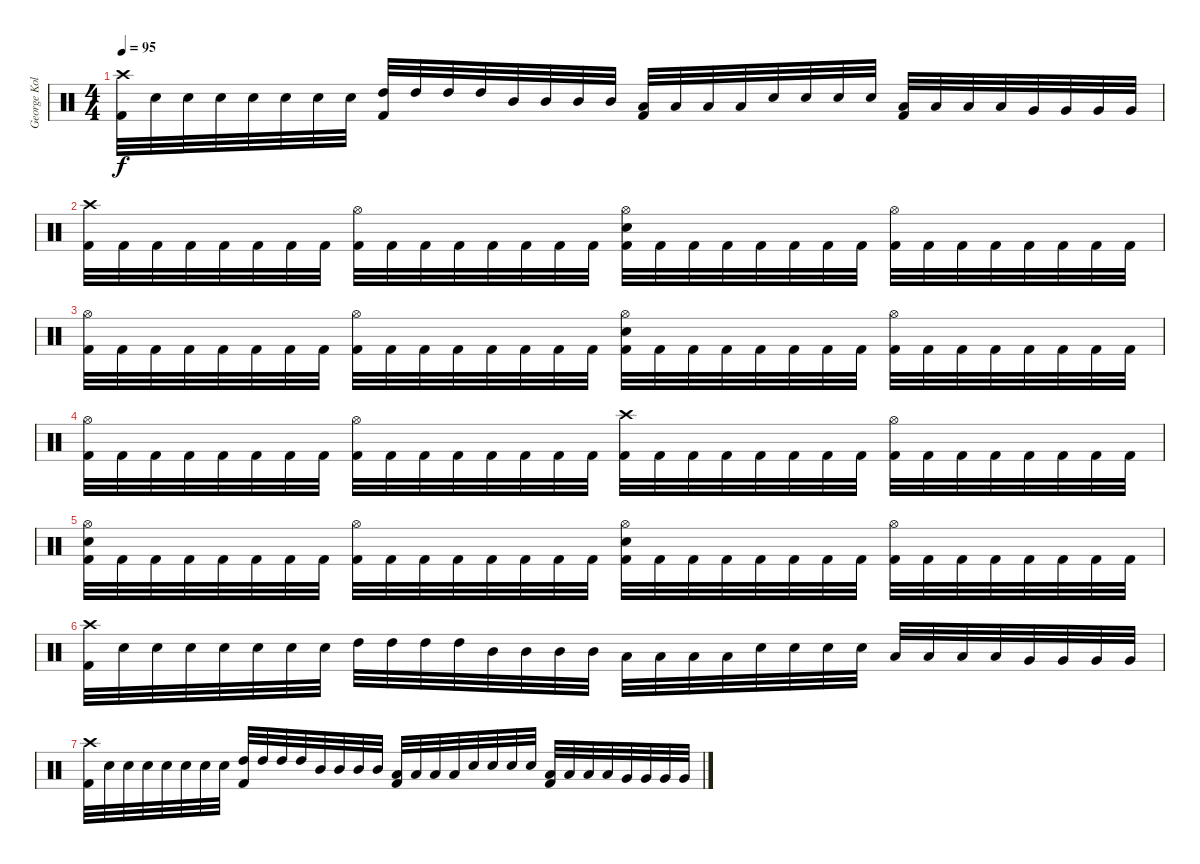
\track ("George Kollias" "George Kol") {instrument percussion}
\staff {score}
\articulation defaults
\ts (4 4)
\tempo 95
\clef neutral
\ks c
("Crash high (hit)" "Kick (hit) 2").32{dy f} "Electric Snare (hit)".32 "Electric Snare (hit)".32 "Electric Snare (hit)".32 "Electric Snare (hit)".32 "Electric Snare (hit)".32 "Electric Snare (hit)".32 "Electric Snare (hit)".32 ("High Tom (hit)" "Kick (hit) 2").32 "High Tom (hit)".32 "High Tom (hit)".32 "High Tom (hit)".32 "Mid Tom (hit)".32 "Mid Tom (hit)".32 "Mid Tom (hit)".32 "Mid Tom (hit)".32 ("Low Tom (hit)" "Kick (hit) 2").32 "Low Tom (hit)".32 "Low Tom (hit)".32 "Low Tom (hit)".32 "Electric Snare (hit)".32 "Electric Snare (hit)".32 "Electric Snare (hit)".32 "Electric Snare (hit)".32 ("Low Tom (hit)" "Kick (hit) 2").32 "Low Tom (hit)".32 "Low Tom (hit)".32 "Low Tom (hit)".32 "Very Low Tom (hit)".32 "Very Low Tom (hit)".32 "Very Low Tom (hit)".32 "Very Low Tom (hit)".32 |
("Crash high (hit)" "Kick (hit) 2").32 "Kick (hit) 2".32 "Kick (hit) 2".32 "Kick (hit) 2".32 "Kick (hit) 2".32 "Kick (hit) 2".32 "Kick (hit) 2".32 "Kick (hit) 2".32 ("Hi-Hat (open)" "Kick (hit) 2").32 "Kick (hit) 2".32 "Kick (hit) 2".32 "Kick (hit) 2".32 "Kick (hit) 2".32 "Kick (hit) 2".32 "Kick (hit) 2".32 "Kick (hit) 2".32 ("Hi-Hat (open)" "Electric Snare (hit)" "Kick (hit) 2").32 "Kick (hit) 2".32 "Kick (hit) 2".32 "Kick (hit) 2".32 "Kick (hit) 2".32 "Kick (hit) 2".32 "Kick (hit) 2".32 "Kick (hit) 2".32 ("Hi-Hat (open)" "Kick (hit) 2").32 "Kick (hit) 2".32 "Kick (hit) 2".32 "Kick (hit) 2".32 "Kick (hit) 2".32 "Kick (hit) 2".32 "Kick (hit) 2".32 "Kick (hit) 2".32 |
("Hi-Hat (open)" "Kick (hit) 2").32 "Kick (hit) 2".32 "Kick (hit) 2".32 "Kick (hit) 2".32 "Kick (hit) 2".32 "Kick (hit) 2".32 "Kick (hit) 2".32 "Kick (hit) 2".32 ("Hi-Hat (open)" "Kick (hit) 2").32 "Kick (hit) 2".32 "Kick (hit) 2".32 "Kick (hit) 2".32 "Kick (hit) 2".32 "Kick (hit) 2".32 "Kick (hit) 2".32 "Kick (hit) 2".32 ("Hi-Hat (open)" "Electric Snare (hit)" "Kick (hit) 2").32 "Kick (hit) 2".32 "Kick (hit) 2".32 "Kick (hit) 2".32 "Kick (hit) 2".32 "Kick (hit) 2".32 "Kick (hit) 2".32 "Kick (hit) 2".32 ("Hi-Hat (open)" "Kick (hit) 2").32 "Kick (hit) 2".32 "Kick (hit) 2".32 "Kick (hit) 2".32 "Kick (hit) 2".32 "Kick (hit) 2".32 "Kick (hit) 2".32 "Kick (hit) 2".32 |
("Hi-Hat (open)" "Kick (hit) 2").32 "Kick (hit) 2".32 "Kick (hit) 2".32 "Kick (hit) 2".32 "Kick (hit) 2".32 "Kick (hit) 2".32 "Kick (hit) 2".32 "Kick (hit) 2".32 ("Hi-Hat (open)" "Kick (hit) 2").32 "Kick (hit) 2".32 "Kick (hit) 2".32 "Kick (hit) 2".32 "Kick (hit) 2".32 "Kick (hit) 2".32 "Kick (hit) 2".32 "Kick (hit) 2".32 ("Crash high (hit)" "Kick (hit) 2").32 "Kick (hit) 2".32 "Kick (hit) 2".32 "Kick (hit) 2".32 "Kick (hit) 2".32 "Kick (hit) 2".32 "Kick (hit) 2".32 "Kick (hit) 2".32 ("Hi-Hat (open)" "Kick (hit) 2").32 "Kick (hit) 2".32 "Kick (hit) 2".32 "Kick (hit) 2".32 "Kick (hit) 2".32 "Kick (hit) 2".32 "Kick (hit) 2".32 "Kick (hit) 2".32 |
("Hi-Hat (open)" "Electric Snare (hit)" "Kick (hit) 2").32 "Kick (hit) 2".32 "Kick (hit) 2".32 "Kick (hit) 2".32 "Kick (hit) 2".32 "Kick (hit) 2".32 "Kick (hit) 2".32 "Kick (hit) 2".32 ("Hi-Hat (open)" "Kick (hit) 2").32 "Kick (hit) 2".32 "Kick (hit) 2".32 "Kick (hit) 2".32 "Kick (hit) 2".32 "Kick (hit) 2".32 "Kick (hit) 2".32 "Kick (hit) 2".32 ("Hi-Hat (open)" "Electric Snare (hit)" "Kick (hit) 2").32 "Kick (hit) 2".32 "Kick (hit) 2".32 "Kick (hit) 2".32 "Kick (hit) 2".32 "Kick (hit) 2".32 "Kick (hit) 2".32 "Kick (hit) 2".32 ("Hi-Hat (open)" "Kick (hit) 2").32 "Kick (hit) 2".32 "Kick (hit) 2".32 "Kick (hit) 2".32 "Kick (hit) 2".32 "Kick (hit) 2".32 "Kick (hit) 2".32 "Kick (hit) 2".32 |
("Crash high (hit)" "Kick (hit) 2").32 "Electric Snare (hit)".32 "Electric Snare (hit)".32 "Electric Snare (hit)".32 "Electric Snare (hit)".32 "Electric Snare (hit)".32 "Electric Snare (hit)".32 "Electric Snare (hit)".32 "High Tom (hit)".32 "High Tom (hit)".32 "High Tom (hit)".32 "High Tom (hit)".32 "Mid Tom (hit)".32 "Mid Tom (hit)".32 "Mid Tom (hit)".32 "Mid Tom (hit)".32 "Low Tom (hit)".32 "Low Tom (hit)".32 "Low Tom (hit)".32 "Low Tom (hit)".32 "Electric Snare (hit)".32 "Electric Snare (hit)".32 "Electric Snare (hit)".32 "Electric Snare (hit)".32 "Low Tom (hit)".32 "Low Tom (hit)".32 "Low Tom (hit)".32 "Low Tom (hit)".32 "Very Low Tom (hit)".32 "Very Low Tom (hit)".32 "Very Low Tom (hit)".32 "Very Low Tom (hit)".32 |
("Crash high (hit)" "Kick (hit) 2").32 "Electric Snare (hit)".32 "Electric Snare (hit)".32 "Electric Snare (hit)".32 "Electric Snare (hit)".32 "Electric Snare (hit)".32 "Electric Snare (hit)".32 "Electric Snare (hit)".32 ("High Tom (hit)" "Kick (hit) 2").32 "High Tom (hit)".32 "High Tom (hit)".32 "High Tom (hit)".32 "Mid Tom (hit)".32 "Mid Tom (hit)".32 "Mid Tom (hit)".32 "Mid Tom (hit)".32 ("Low Tom (hit)" "Kick (hit) 2").32 "Low Tom (hit)".32 "Low Tom (hit)".32 "Low Tom (hit)".32 "Electric Snare (hit)".32 "Electric Snare (hit)".32 "Electric Snare (hit)".32 "Electric Snare (hit)".32 ("Low Tom (hit)" "Kick (hit) 2").32 "Low Tom (hit)".32 "Low Tom (hit)".32 "Low Tom (hit)".32 "Very Low Tom (hit)".32 "Very Low Tom (hit)".32 "Very Low Tom (hit)".32 "Very Low Tom (hit)".32
